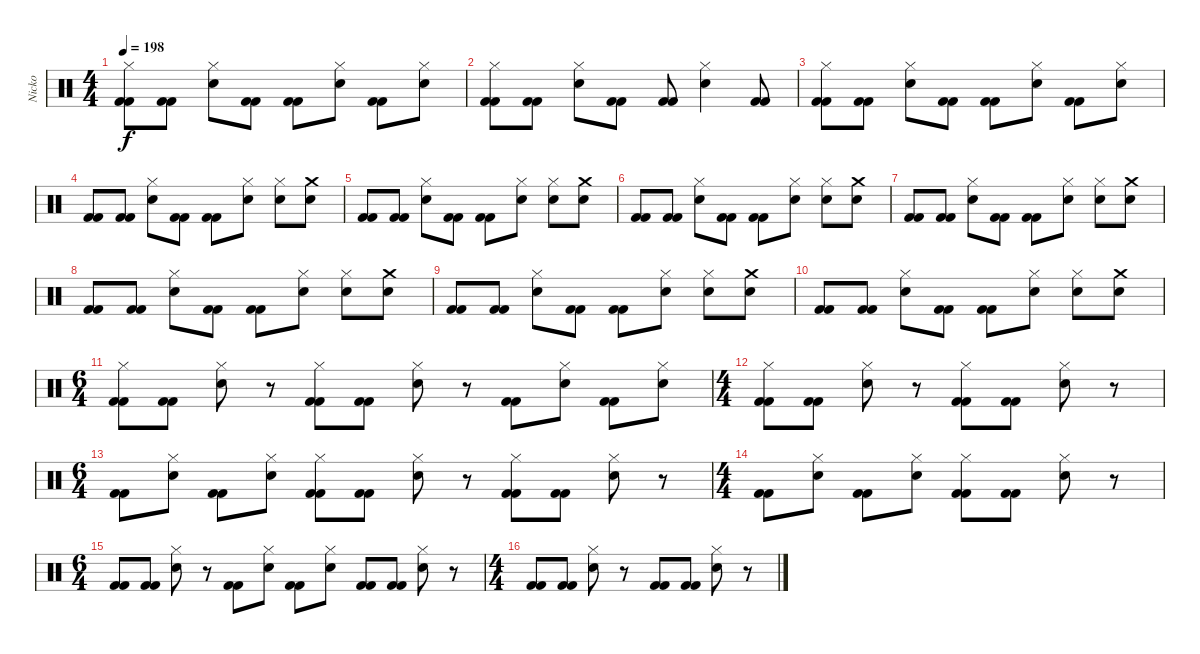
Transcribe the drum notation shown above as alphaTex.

\track ("Nicko" "Nicko") {instrument percussion}
\staff {score}
\articulation defaults
\ts (4 4)
\tempo 198
\clef neutral
\ks c
("Hi-Hat (closed)" "Kick (hit) 2" "Kick (hit) 2").8{dy f} ("Kick (hit) 2" "Kick (hit) 2").8 ("Hi-Hat (closed)" "Electric Snare (hit)").8 ("Kick (hit) 2" "Kick (hit) 2").8 ("Kick (hit) 2" "Kick (hit) 2").8 ("Hi-Hat (closed)" "Electric Snare (hit)").8 ("Kick (hit) 2" "Kick (hit) 2").8 ("Hi-Hat (closed)" "Electric Snare (hit)").8 |
("Hi-Hat (closed)" "Kick (hit) 2" "Kick (hit) 2").8 ("Kick (hit) 2" "Kick (hit) 2").8 ("Hi-Hat (closed)" "Electric Snare (hit)").8 ("Kick (hit) 2" "Kick (hit) 2").8 ("Kick (hit) 2" "Kick (hit) 2").8 ("Hi-Hat (closed)" "Electric Snare (hit)").4 ("Kick (hit) 2" "Kick (hit) 2").8 |
("Hi-Hat (closed)" "Kick (hit) 2" "Kick (hit) 2").8 ("Kick (hit) 2" "Kick (hit) 2").8 ("Hi-Hat (closed)" "Electric Snare (hit)").8 ("Kick (hit) 2" "Kick (hit) 2").8 ("Kick (hit) 2" "Kick (hit) 2").8 ("Hi-Hat (closed)" "Electric Snare (hit)").8 ("Kick (hit) 2" "Kick (hit) 2").8 ("Hi-Hat (closed)" "Electric Snare (hit)").8 |
("Kick (hit) 2" "Kick (hit) 2").8 ("Kick (hit) 2" "Kick (hit) 2").8 ("Hi-Hat (closed)" "Electric Snare (hit)").8 ("Kick (hit) 2" "Kick (hit) 2").8 ("Kick (hit) 2" "Kick (hit) 2").8 ("Hi-Hat (closed)" "Electric Snare (hit)").8 ("Hi-Hat (closed)" "Electric Snare (hit)").8 ("Crash medium (hit)" "Electric Snare (hit)").8 |
("Kick (hit) 2" "Kick (hit) 2").8 ("Kick (hit) 2" "Kick (hit) 2").8 ("Hi-Hat (closed)" "Electric Snare (hit)").8 ("Kick (hit) 2" "Kick (hit) 2").8 ("Kick (hit) 2" "Kick (hit) 2").8 ("Hi-Hat (closed)" "Electric Snare (hit)").8 ("Hi-Hat (closed)" "Electric Snare (hit)").8 ("Crash medium (hit)" "Electric Snare (hit)").8 |
("Kick (hit) 2" "Kick (hit) 2").8 ("Kick (hit) 2" "Kick (hit) 2").8 ("Hi-Hat (closed)" "Electric Snare (hit)").8 ("Kick (hit) 2" "Kick (hit) 2").8 ("Kick (hit) 2" "Kick (hit) 2").8 ("Hi-Hat (closed)" "Electric Snare (hit)").8 ("Hi-Hat (closed)" "Electric Snare (hit)").8 ("Crash medium (hit)" "Electric Snare (hit)").8 |
("Kick (hit) 2" "Kick (hit) 2").8 ("Kick (hit) 2" "Kick (hit) 2").8 ("Hi-Hat (closed)" "Electric Snare (hit)").8 ("Kick (hit) 2" "Kick (hit) 2").8 ("Kick (hit) 2" "Kick (hit) 2").8 ("Hi-Hat (closed)" "Electric Snare (hit)").8 ("Hi-Hat (closed)" "Electric Snare (hit)").8 ("Crash medium (hit)" "Electric Snare (hit)").8 |
("Kick (hit) 2" "Kick (hit) 2").8 ("Kick (hit) 2" "Kick (hit) 2").8 ("Hi-Hat (closed)" "Electric Snare (hit)").8 ("Kick (hit) 2" "Kick (hit) 2").8 ("Kick (hit) 2" "Kick (hit) 2").8 ("Hi-Hat (closed)" "Electric Snare (hit)").8 ("Hi-Hat (closed)" "Electric Snare (hit)").8 ("Crash medium (hit)" "Electric Snare (hit)").8 |
("Kick (hit) 2" "Kick (hit) 2").8 ("Kick (hit) 2" "Kick (hit) 2").8 ("Hi-Hat (closed)" "Electric Snare (hit)").8 ("Kick (hit) 2" "Kick (hit) 2").8 ("Kick (hit) 2" "Kick (hit) 2").8 ("Hi-Hat (closed)" "Electric Snare (hit)").8 ("Hi-Hat (closed)" "Electric Snare (hit)").8 ("Crash medium (hit)" "Electric Snare (hit)").8 |
("Kick (hit) 2" "Kick (hit) 2").8 ("Kick (hit) 2" "Kick (hit) 2").8 ("Hi-Hat (closed)" "Electric Snare (hit)").8 ("Kick (hit) 2" "Kick (hit) 2").8 ("Kick (hit) 2" "Kick (hit) 2").8 ("Hi-Hat (closed)" "Electric Snare (hit)").8 ("Hi-Hat (closed)" "Electric Snare (hit)").8 ("Crash medium (hit)" "Electric Snare (hit)").8 |
\ts (6 4)
("Hi-Hat (closed)" "Kick (hit) 2" "Kick (hit) 2").8 ("Kick (hit) 2" "Kick (hit) 2").8 ("Hi-Hat (closed)" "Electric Snare (hit)").8 r.8 ("Hi-Hat (closed)" "Kick (hit) 2" "Kick (hit) 2").8 ("Kick (hit) 2" "Kick (hit) 2").8 ("Hi-Hat (closed)" "Electric Snare (hit)").8 r.8 ("Kick (hit) 2" "Kick (hit) 2").8 ("Hi-Hat (closed)" "Electric Snare (hit)").8 ("Kick (hit) 2" "Kick (hit) 2").8 ("Hi-Hat (closed)" "Electric Snare (hit)").8 |
\ts (4 4)
("Hi-Hat (closed)" "Kick (hit) 2" "Kick (hit) 2").8 ("Kick (hit) 2" "Kick (hit) 2").8 ("Hi-Hat (closed)" "Electric Snare (hit)").8 r.8 ("Hi-Hat (closed)" "Kick (hit) 2" "Kick (hit) 2").8 ("Kick (hit) 2" "Kick (hit) 2").8 ("Hi-Hat (closed)" "Electric Snare (hit)").8 r.8 |
\ts (6 4)
("Kick (hit) 2" "Kick (hit) 2").8 ("Hi-Hat (closed)" "Electric Snare (hit)").8 ("Kick (hit) 2" "Kick (hit) 2").8 ("Hi-Hat (closed)" "Electric Snare (hit)").8 ("Hi-Hat (closed)" "Kick (hit) 2" "Kick (hit) 2").8 ("Kick (hit) 2" "Kick (hit) 2").8 ("Hi-Hat (closed)" "Electric Snare (hit)").8 r.8 ("Hi-Hat (closed)" "Kick (hit) 2" "Kick (hit) 2").8 ("Kick (hit) 2" "Kick (hit) 2").8 ("Hi-Hat (closed)" "Electric Snare (hit)").8 r.8 |
\ts (4 4)
("Kick (hit) 2" "Kick (hit) 2").8 ("Hi-Hat (closed)" "Electric Snare (hit)").8 ("Kick (hit) 2" "Kick (hit) 2").8 ("Hi-Hat (closed)" "Electric Snare (hit)").8 ("Hi-Hat (closed)" "Kick (hit) 2" "Kick (hit) 2").8 ("Kick (hit) 2" "Kick (hit) 2").8 ("Hi-Hat (closed)" "Electric Snare (hit)").8 r.8 |
\ts (6 4)
("Kick (hit) 2" "Kick (hit) 2").8 ("Kick (hit) 2" "Kick (hit) 2").8 ("Hi-Hat (closed)" "Electric Snare (hit)").8 r.8 ("Kick (hit) 2" "Kick (hit) 2").8 ("Hi-Hat (closed)" "Electric Snare (hit)").8 ("Kick (hit) 2" "Kick (hit) 2").8 ("Hi-Hat (closed)" "Electric Snare (hit)").8 ("Kick (hit) 2" "Kick (hit) 2").8 ("Kick (hit) 2" "Kick (hit) 2").8 ("Hi-Hat (closed)" "Electric Snare (hit)").8 r.8 |
\ts (4 4)
("Kick (hit) 2" "Kick (hit) 2").8 ("Kick (hit) 2" "Kick (hit) 2").8 ("Hi-Hat (closed)" "Electric Snare (hit)").8 r.8 ("Kick (hit) 2" "Kick (hit) 2").8 ("Kick (hit) 2" "Kick (hit) 2").8 ("Hi-Hat (closed)" "Electric Snare (hit)").8 r.8
